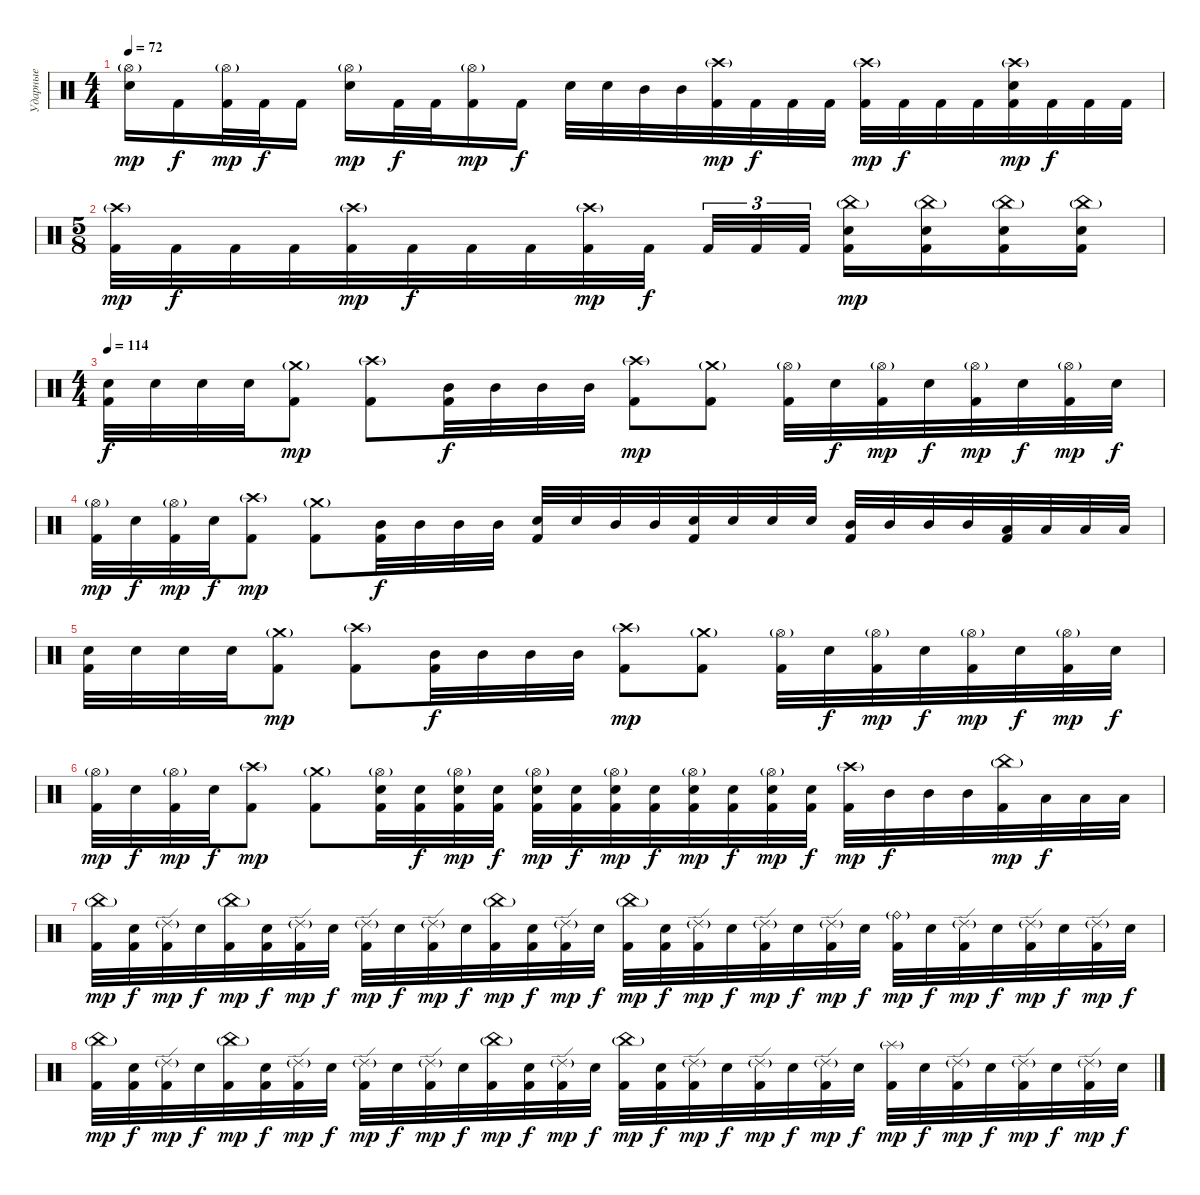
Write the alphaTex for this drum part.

\track ("Ударные" "Ударные") {instrument percussion}
\staff {score}
\articulation defaults
\ts (4 4)
\tempo 72
\clef neutral
\ks c
("Hi-Hat (open)"{g} "Electric Snare (hit)").16{dy mp} "Kick (hit) 2".16{dy f} ("Hi-Hat (open)"{g} "Kick (hit) 2").32{dy mp} "Kick (hit) 2".32{dy f} "Kick (hit) 2".16 ("Hi-Hat (open)"{g} "Electric Snare (hit)").16{dy mp} "Kick (hit) 2".32{dy f} "Kick (hit) 2".32 ("Hi-Hat (open)"{g} "Kick (hit) 2").16{dy mp} "Kick (hit) 2".16{dy f} "Electric Snare (hit)".32 "Electric Snare (hit)".32 "Mid Tom (hit)".32 "Mid Tom (hit)".32 ("Crash high (hit)"{g} "Kick (hit) 2").32{dy mp} "Kick (hit) 2".32{dy f} "Kick (hit) 2".32 "Kick (hit) 2".32 ("Crash high (hit)"{g} "Kick (hit) 2").32{dy mp} "Kick (hit) 2".32{dy f} "Kick (hit) 2".32 "Kick (hit) 2".32 ("Crash high (hit)"{g} "Electric Snare (hit)" "Kick (hit) 2").32{dy mp} "Kick (hit) 2".32{dy f} "Kick (hit) 2".32 "Kick (hit) 2".32 |
\ts (5 8)
("Crash high (hit)"{g} "Kick (hit) 2").32{dy mp} "Kick (hit) 2".32{dy f} "Kick (hit) 2".32 "Kick (hit) 2".32 ("Crash high (hit)"{g} "Kick (hit) 2").32{dy mp} "Kick (hit) 2".32{dy f} "Kick (hit) 2".32 "Kick (hit) 2".32 ("Crash high (hit)"{g} "Kick (hit) 2").32{dy mp} "Kick (hit) 2".32{dy f} "Kick (hit) 2".32{tu (3 2)} "Kick (hit) 2".32{tu (3 2)} "Kick (hit) 2".32{tu (3 2)} ("China (hit)"{g} "Electric Snare (hit)" "Kick (hit) 2").16{dy mp} ("China (hit)"{g} "Electric Snare (hit)" "Kick (hit) 2").16 ("China (hit)"{g} "Electric Snare (hit)" "Kick (hit) 2").16 ("China (hit)"{g} "Electric Snare (hit)" "Kick (hit) 2").16 |
\ts (4 4)
\tempo 114
("Electric Snare (hit)" "Kick (hit) 2").32{dy f} "Electric Snare (hit)".32 "Electric Snare (hit)".32 "Electric Snare (hit)".32 ("Crash medium (hit)"{g} "Kick (hit) 2").8{dy mp} ("Crash high (hit)"{g} "Kick (hit) 2").8 ("Mid Tom (hit)" "Kick (hit) 2").32{dy f} "Mid Tom (hit)".32 "Mid Tom (hit)".32 "Mid Tom (hit)".32 ("Crash high (hit)"{g} "Kick (hit) 2").8{dy mp} ("Crash medium (hit)"{g} "Kick (hit) 2").8 ("Hi-Hat (open)"{g} "Kick (hit) 2").32 "Electric Snare (hit)".32{dy f} ("Hi-Hat (open)"{g} "Kick (hit) 2").32{dy mp} "Electric Snare (hit)".32{dy f} ("Hi-Hat (open)"{g} "Kick (hit) 2").32{dy mp} "Electric Snare (hit)".32{dy f} ("Hi-Hat (open)"{g} "Kick (hit) 2").32{dy mp} "Electric Snare (hit)".32{dy f} |
("Hi-Hat (open)"{g} "Kick (hit) 2").32{dy mp} "Electric Snare (hit)".32{dy f} ("Hi-Hat (open)"{g} "Kick (hit) 2").32{dy mp} "Electric Snare (hit)".32{dy f} ("Crash high (hit)"{g} "Kick (hit) 2").8{dy mp} ("Crash medium (hit)"{g} "Kick (hit) 2").8 ("Mid Tom (hit)" "Kick (hit) 2").32{dy f} "Mid Tom (hit)".32 "Mid Tom (hit)".32 "Mid Tom (hit)".32 ("Electric Snare (hit)" "Kick (hit) 2").32 "Electric Snare (hit)".32 "Mid Tom (hit)".32 "Mid Tom (hit)".32 ("Electric Snare (hit)" "Kick (hit) 2").32 "Electric Snare (hit)".32 "Electric Snare (hit)".32 "Electric Snare (hit)".32 ("Mid Tom (hit)" "Kick (hit) 2").32 "Mid Tom (hit)".32 "Mid Tom (hit)".32 "Mid Tom (hit)".32 ("Low Tom (hit)" "Kick (hit) 2").32 "Low Tom (hit)".32 "Low Tom (hit)".32 "Low Tom (hit)".32 |
("Electric Snare (hit)" "Kick (hit) 2").32 "Electric Snare (hit)".32 "Electric Snare (hit)".32 "Electric Snare (hit)".32 ("Crash medium (hit)"{g} "Kick (hit) 2").8{dy mp} ("Crash high (hit)"{g} "Kick (hit) 2").8 ("Mid Tom (hit)" "Kick (hit) 2").32{dy f} "Mid Tom (hit)".32 "Mid Tom (hit)".32 "Mid Tom (hit)".32 ("Crash high (hit)"{g} "Kick (hit) 2").8{dy mp} ("Crash medium (hit)"{g} "Kick (hit) 2").8 ("Hi-Hat (open)"{g} "Kick (hit) 2").32 "Electric Snare (hit)".32{dy f} ("Hi-Hat (open)"{g} "Kick (hit) 2").32{dy mp} "Electric Snare (hit)".32{dy f} ("Hi-Hat (open)"{g} "Kick (hit) 2").32{dy mp} "Electric Snare (hit)".32{dy f} ("Hi-Hat (open)"{g} "Kick (hit) 2").32{dy mp} "Electric Snare (hit)".32{dy f} |
("Hi-Hat (open)"{g} "Kick (hit) 2").32{dy mp} "Electric Snare (hit)".32{dy f} ("Hi-Hat (open)"{g} "Kick (hit) 2").32{dy mp} "Electric Snare (hit)".32{dy f} ("Crash high (hit)"{g} "Kick (hit) 2").8{dy mp} ("Crash medium (hit)"{g} "Kick (hit) 2").8 ("Hi-Hat (open)"{g} "Electric Snare (hit)" "Kick (hit) 2").32 ("Electric Snare (hit)" "Kick (hit) 2").32{dy f} ("Hi-Hat (open)"{g} "Electric Snare (hit)" "Kick (hit) 2").32{dy mp} ("Electric Snare (hit)" "Kick (hit) 2").32{dy f} ("Hi-Hat (open)"{g} "Electric Snare (hit)" "Kick (hit) 2").32{dy mp} ("Electric Snare (hit)" "Kick (hit) 2").32{dy f} ("Hi-Hat (open)"{g} "Electric Snare (hit)" "Kick (hit) 2").32{dy mp} ("Electric Snare (hit)" "Kick (hit) 2").32{dy f} ("Hi-Hat (open)"{g} "Electric Snare (hit)" "Kick (hit) 2").32{dy mp} ("Electric Snare (hit)" "Kick (hit) 2").32{dy f} ("Hi-Hat (open)"{g} "Electric Snare (hit)" "Kick (hit) 2").32{dy mp} ("Electric Snare (hit)" "Kick (hit) 2").32{dy f} ("Crash high (hit)"{g} "Kick (hit) 2").32{dy mp} "Mid Tom (hit)".32{dy f} "Mid Tom (hit)".32 "Mid Tom (hit)".32 ("China (hit)"{g} "Kick (hit) 2").32{dy mp} "Low Tom (hit)".32{dy f} "Low Tom (hit)".32 "Low Tom (hit)".32 |
("China (hit)"{g} "Kick (hit) 2").32{dy mp} ("Electric Snare (hit)" "Kick (hit) 2").32{dy f} ("Ride (edge) 2"{g} "Kick (hit) 2").32{dy mp} "Electric Snare (hit)".32{dy f} ("China (hit)"{g} "Kick (hit) 2").32{dy mp} ("Electric Snare (hit)" "Kick (hit) 2").32{dy f} ("Ride (edge) 2"{g} "Kick (hit) 2").32{dy mp} "Electric Snare (hit)".32{dy f} ("Ride (edge) 2"{g} "Kick (hit) 2").32{dy mp} "Electric Snare (hit)".32{dy f} ("Ride (edge) 2"{g} "Kick (hit) 2").32{dy mp} "Electric Snare (hit)".32{dy f} ("China (hit)"{g} "Kick (hit) 2").32{dy mp} ("Electric Snare (hit)" "Kick (hit) 2").32{dy f} ("Ride (edge) 2"{g} "Kick (hit) 2").32{dy mp} "Electric Snare (hit)".32{dy f} ("China (hit)"{g} "Kick (hit) 2").32{dy mp} ("Electric Snare (hit)" "Kick (hit) 2").32{dy f} ("Ride (edge) 2"{g} "Kick (hit) 2").32{dy mp} "Electric Snare (hit)".32{dy f} ("Ride (edge) 2"{g} "Kick (hit) 2").32{dy mp} "Electric Snare (hit)".32{dy f} ("Ride (edge) 2"{g} "Kick (hit) 2").32{dy mp} "Electric Snare (hit)".32{dy f} ("Ride (bell)"{g} "Kick (hit) 2").32{dy mp} "Electric Snare (hit)".32{dy f} ("Ride (edge) 2"{g} "Kick (hit) 2").32{dy mp} "Electric Snare (hit)".32{dy f} ("Ride (edge) 2"{g} "Kick (hit) 2").32{dy mp} "Electric Snare (hit)".32{dy f} ("Ride (edge) 2"{g} "Kick (hit) 2").32{dy mp} "Electric Snare (hit)".32{dy f} |
("China (hit)"{g} "Kick (hit) 2").32{dy mp} ("Electric Snare (hit)" "Kick (hit) 2").32{dy f} ("Ride (edge) 2"{g} "Kick (hit) 2").32{dy mp} "Electric Snare (hit)".32{dy f} ("China (hit)"{g} "Kick (hit) 2").32{dy mp} ("Electric Snare (hit)" "Kick (hit) 2").32{dy f} ("Ride (edge) 2"{g} "Kick (hit) 2").32{dy mp} "Electric Snare (hit)".32{dy f} ("Ride (edge) 2"{g} "Kick (hit) 2").32{dy mp} "Electric Snare (hit)".32{dy f} ("Ride (edge) 2"{g} "Kick (hit) 2").32{dy mp} "Electric Snare (hit)".32{dy f} ("China (hit)"{g} "Kick (hit) 2").32{dy mp} ("Electric Snare (hit)" "Kick (hit) 2").32{dy f} ("Ride (edge) 2"{g} "Kick (hit) 2").32{dy mp} "Electric Snare (hit)".32{dy f} ("China (hit)"{g} "Kick (hit) 2").32{dy mp} ("Electric Snare (hit)" "Kick (hit) 2").32{dy f} ("Ride (edge) 2"{g} "Kick (hit) 2").32{dy mp} "Electric Snare (hit)".32{dy f} ("Ride (edge) 2"{g} "Kick (hit) 2").32{dy mp} "Electric Snare (hit)".32{dy f} ("Ride (edge) 2"{g} "Kick (hit) 2").32{dy mp} "Electric Snare (hit)".32{dy f} ("Splash (hit)"{g} "Kick (hit) 2").32{dy mp} "Electric Snare (hit)".32{dy f} ("Ride (edge) 2"{g} "Kick (hit) 2").32{dy mp} "Electric Snare (hit)".32{dy f} ("Ride (edge) 2"{g} "Kick (hit) 2").32{dy mp} "Electric Snare (hit)".32{dy f} ("Ride (edge) 2"{g} "Kick (hit) 2").32{dy mp} "Electric Snare (hit)".32{dy f}
